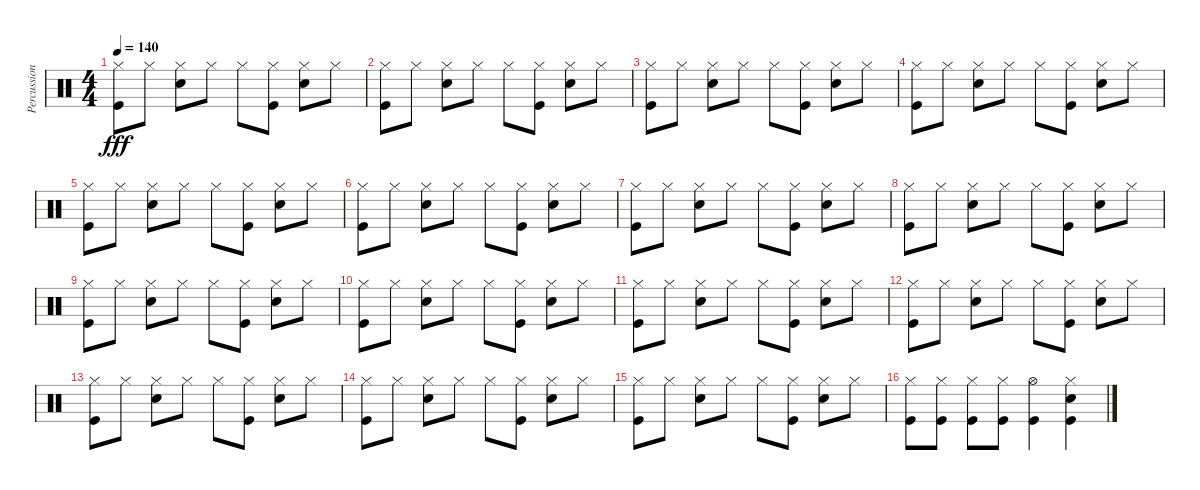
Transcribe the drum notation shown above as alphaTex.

\track ("Percussion" "Percussion") {instrument percussion}
\staff {score}
\articulation defaults
\ts (4 4)
\tempo 140
\clef neutral
\ks c
("Hi-Hat (closed)" "Kick (hit)").8{dy fff} "Hi-Hat (closed)".8 ("Hi-Hat (closed)" "Snare (hit) 2").8 "Hi-Hat (closed)".8 "Hi-Hat (closed)".8 ("Hi-Hat (closed)" "Kick (hit)").8 ("Hi-Hat (closed)" "Snare (hit) 2").8 "Hi-Hat (closed)".8 |
("Hi-Hat (closed)" "Kick (hit)").8 "Hi-Hat (closed)".8 ("Hi-Hat (closed)" "Snare (hit) 2").8 "Hi-Hat (closed)".8 "Hi-Hat (closed)".8 ("Hi-Hat (closed)" "Kick (hit)").8 ("Hi-Hat (closed)" "Snare (hit) 2").8 "Hi-Hat (closed)".8 |
("Hi-Hat (closed)" "Kick (hit)").8 "Hi-Hat (closed)".8 ("Hi-Hat (closed)" "Snare (hit) 2").8 "Hi-Hat (closed)".8 "Hi-Hat (closed)".8 ("Hi-Hat (closed)" "Kick (hit)").8 ("Hi-Hat (closed)" "Snare (hit) 2").8 "Hi-Hat (closed)".8 |
("Hi-Hat (closed)" "Kick (hit)").8 "Hi-Hat (closed)".8 ("Hi-Hat (closed)" "Snare (hit) 2").8 "Hi-Hat (closed)".8 "Hi-Hat (closed)".8 ("Hi-Hat (closed)" "Kick (hit)").8 ("Hi-Hat (closed)" "Snare (hit) 2").8 "Hi-Hat (closed)".8 |
("Hi-Hat (closed)" "Kick (hit)").8 "Hi-Hat (closed)".8 ("Hi-Hat (closed)" "Snare (hit) 2").8 "Hi-Hat (closed)".8 "Hi-Hat (closed)".8 ("Hi-Hat (closed)" "Kick (hit)").8 ("Hi-Hat (closed)" "Snare (hit) 2").8 "Hi-Hat (closed)".8 |
("Hi-Hat (closed)" "Kick (hit)").8 "Hi-Hat (closed)".8 ("Hi-Hat (closed)" "Snare (hit) 2").8 "Hi-Hat (closed)".8 "Hi-Hat (closed)".8 ("Hi-Hat (closed)" "Kick (hit)").8 ("Hi-Hat (closed)" "Snare (hit) 2").8 "Hi-Hat (closed)".8 |
("Hi-Hat (closed)" "Kick (hit)").8 "Hi-Hat (closed)".8 ("Hi-Hat (closed)" "Snare (hit) 2").8 "Hi-Hat (closed)".8 "Hi-Hat (closed)".8 ("Hi-Hat (closed)" "Kick (hit)").8 ("Hi-Hat (closed)" "Snare (hit) 2").8 "Hi-Hat (closed)".8 |
("Hi-Hat (closed)" "Kick (hit)").8 "Hi-Hat (closed)".8 ("Hi-Hat (closed)" "Snare (hit) 2").8 "Hi-Hat (closed)".8 "Hi-Hat (closed)".8 ("Hi-Hat (closed)" "Kick (hit)").8 ("Hi-Hat (closed)" "Snare (hit) 2").8 "Hi-Hat (closed)".8 |
("Hi-Hat (closed)" "Kick (hit)").8 "Hi-Hat (closed)".8 ("Hi-Hat (closed)" "Snare (hit) 2").8 "Hi-Hat (closed)".8 "Hi-Hat (closed)".8 ("Hi-Hat (closed)" "Kick (hit)").8 ("Hi-Hat (closed)" "Snare (hit) 2").8 "Hi-Hat (closed)".8 |
("Hi-Hat (closed)" "Kick (hit)").8 "Hi-Hat (closed)".8 ("Hi-Hat (closed)" "Snare (hit) 2").8 "Hi-Hat (closed)".8 "Hi-Hat (closed)".8 ("Hi-Hat (closed)" "Kick (hit)").8 ("Hi-Hat (closed)" "Snare (hit) 2").8 "Hi-Hat (closed)".8 |
("Hi-Hat (closed)" "Kick (hit)").8 "Hi-Hat (closed)".8 ("Hi-Hat (closed)" "Snare (hit) 2").8 "Hi-Hat (closed)".8 "Hi-Hat (closed)".8 ("Hi-Hat (closed)" "Kick (hit)").8 ("Hi-Hat (closed)" "Snare (hit) 2").8 "Hi-Hat (closed)".8 |
("Hi-Hat (closed)" "Kick (hit)").8 "Hi-Hat (closed)".8 ("Hi-Hat (closed)" "Snare (hit) 2").8 "Hi-Hat (closed)".8 "Hi-Hat (closed)".8 ("Hi-Hat (closed)" "Kick (hit)").8 ("Hi-Hat (closed)" "Snare (hit) 2").8 "Hi-Hat (closed)".8 |
("Hi-Hat (closed)" "Kick (hit)").8 "Hi-Hat (closed)".8 ("Hi-Hat (closed)" "Snare (hit) 2").8 "Hi-Hat (closed)".8 "Hi-Hat (closed)".8 ("Hi-Hat (closed)" "Kick (hit)").8 ("Hi-Hat (closed)" "Snare (hit) 2").8 "Hi-Hat (closed)".8 |
("Hi-Hat (closed)" "Kick (hit)").8 "Hi-Hat (closed)".8 ("Hi-Hat (closed)" "Snare (hit) 2").8 "Hi-Hat (closed)".8 "Hi-Hat (closed)".8 ("Hi-Hat (closed)" "Kick (hit)").8 ("Hi-Hat (closed)" "Snare (hit) 2").8 "Hi-Hat (closed)".8 |
("Hi-Hat (closed)" "Kick (hit)").8 "Hi-Hat (closed)".8 ("Hi-Hat (closed)" "Snare (hit) 2").8 "Hi-Hat (closed)".8 "Hi-Hat (closed)".8 ("Hi-Hat (closed)" "Kick (hit)").8 ("Hi-Hat (closed)" "Snare (hit) 2").8 "Hi-Hat (closed)".8 |
("Hi-Hat (closed)" "Kick (hit)").8 ("Hi-Hat (closed)" "Kick (hit)").8 ("Hi-Hat (closed)" "Kick (hit)").8 ("Hi-Hat (closed)" "Kick (hit)").8 ("Hi-Hat (open)" "Kick (hit)").4 ("Hi-Hat (closed)" "Snare (hit) 2" "Kick (hit)").4
